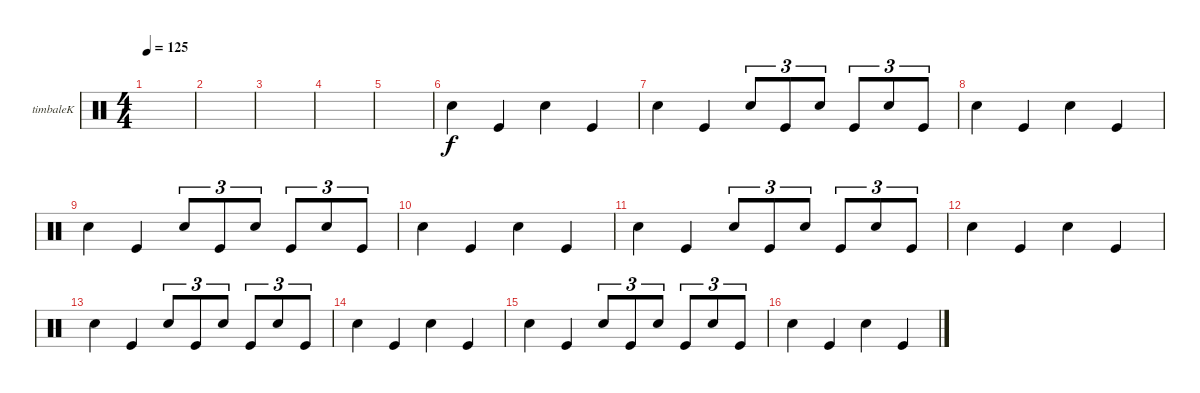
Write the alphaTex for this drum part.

\defaultSystemsLayout 4
\bracketExtendMode groupsimilarinstruments
\firstSystemTrackNameOrientation horizontal
\otherSystemsTrackNameOrientation horizontal
\track ("Timbale" "timbaleK") {instrument percussion}
\staff {score}
\articulation defaults
\ts (4 4)
\tempo 125
\clef neutral
\scale
0.474178
\ks c
|
\scale
0.262911 |
|
|
|
\scale
0.262911 "Snare (hit) 2".4 "Kick (hit)".4 "Snare (hit) 2".4 "Kick (hit)".4 |
\scale
0.333333 "Snare (hit) 2".4 "Kick (hit)".4 "Snare (hit) 2".8{tu (3 2)} "Kick (hit)".8{tu (3 2)} "Snare (hit) 2".8{tu (3 2)} "Kick (hit)".8{tu (3 2)} "Snare (hit) 2".8{tu (3 2)} "Kick (hit)".8{tu (3 2)} |
\scale
0.333333 "Snare (hit) 2".4 "Kick (hit)".4 "Snare (hit) 2".4 "Kick (hit)".4 |
"Snare (hit) 2".4 "Kick (hit)".4 "Snare (hit) 2".8{tu (3 2)} "Kick (hit)".8{tu (3 2)} "Snare (hit) 2".8{tu (3 2)} "Kick (hit)".8{tu (3 2)} "Snare (hit) 2".8{tu (3 2)} "Kick (hit)".8{tu (3 2)} |
\scale
0.333333 "Snare (hit) 2".4 "Kick (hit)".4 "Snare (hit) 2".4 "Kick (hit)".4 |
\scale
0.333333 "Snare (hit) 2".4 "Kick (hit)".4 "Snare (hit) 2".8{tu (3 2)} "Kick (hit)".8{tu (3 2)} "Snare (hit) 2".8{tu (3 2)} "Kick (hit)".8{tu (3 2)} "Snare (hit) 2".8{tu (3 2)} "Kick (hit)".8{tu (3 2)} |
\scale
0.333333 "Snare (hit) 2".4 "Kick (hit)".4 "Snare (hit) 2".4 "Kick (hit)".4 |
\scale
0.333333 "Snare (hit) 2".4 "Kick (hit)".4 "Snare (hit) 2".8{tu (3 2)} "Kick (hit)".8{tu (3 2)} "Snare (hit) 2".8{tu (3 2)} "Kick (hit)".8{tu (3 2)} "Snare (hit) 2".8{tu (3 2)} "Kick (hit)".8{tu (3 2)} |
\scale
0.333333 "Snare (hit) 2".4 "Kick (hit)".4 "Snare (hit) 2".4 "Kick (hit)".4 |
\scale
0.333333 "Snare (hit) 2".4 "Kick (hit)".4 "Snare (hit) 2".8{tu (3 2)} "Kick (hit)".8{tu (3 2)} "Snare (hit) 2".8{tu (3 2)} "Kick (hit)".8{tu (3 2)} "Snare (hit) 2".8{tu (3 2)} "Kick (hit)".8{tu (3 2)} |
\scale
0.333333 "Snare (hit) 2".4 "Kick (hit)".4 "Snare (hit) 2".4 "Kick (hit)".4
